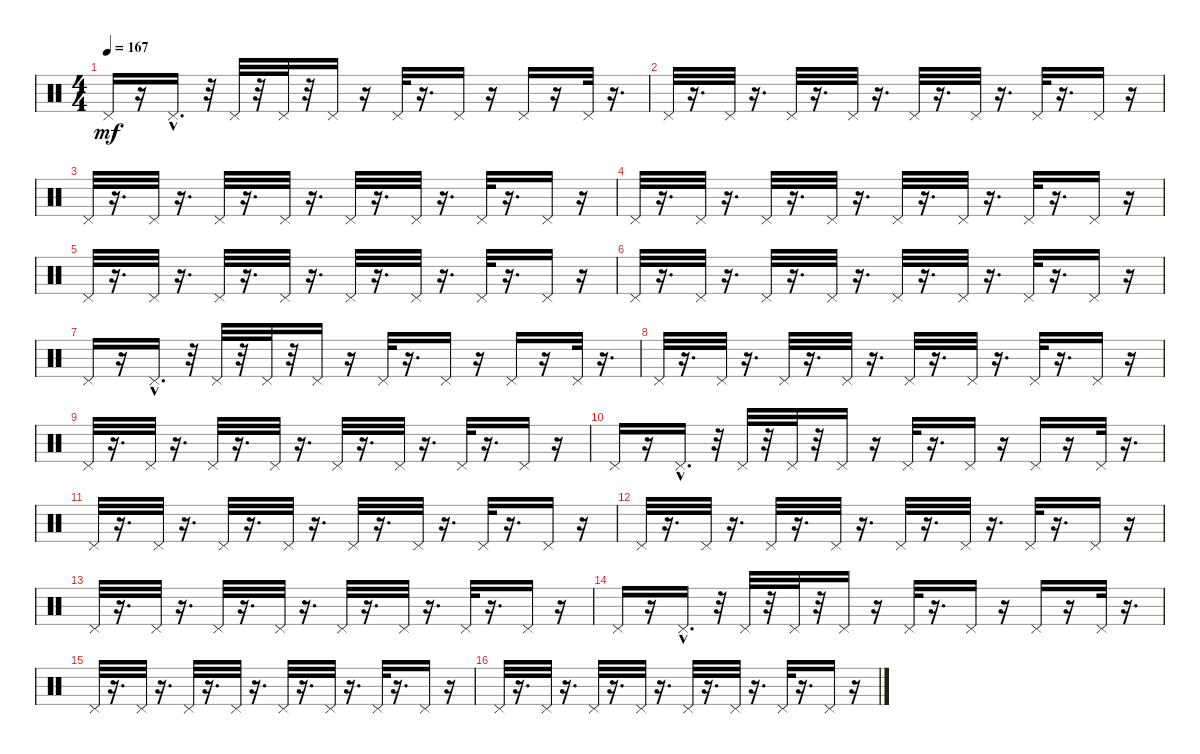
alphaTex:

\track "" {instrument percussion}
\staff {score}
\articulation defaults
\ts (4 4)
\tempo 167
\clef neutral
\ks c "Pedal Hi-Hat (hit)".16{dy mf}
r.16 "Pedal Hi-Hat (hit)"{hac}.16{d} r.32 "Pedal Hi-Hat (hit)".32 r.32 "Pedal Hi-Hat (hit)".32 r.32 "Pedal Hi-Hat (hit)".16 r.16 "Pedal Hi-Hat (hit)".32 r.16{d} "Pedal Hi-Hat (hit)".16 r.16 "Pedal Hi-Hat (hit)".16 r.16 "Pedal Hi-Hat (hit)".32 r.16{d} |
"Pedal Hi-Hat (hit)".32 r.16{d} "Pedal Hi-Hat (hit)".32 r.16{d} "Pedal Hi-Hat (hit)".32 r.16{d} "Pedal Hi-Hat (hit)".32 r.16{d} "Pedal Hi-Hat (hit)".32 r.16{d} "Pedal Hi-Hat (hit)".32 r.16{d} "Pedal Hi-Hat (hit)".32 r.16{d} "Pedal Hi-Hat (hit)".16 r.16 |
"Pedal Hi-Hat (hit)".32 r.16{d} "Pedal Hi-Hat (hit)".32 r.16{d} "Pedal Hi-Hat (hit)".32 r.16{d} "Pedal Hi-Hat (hit)".32 r.16{d} "Pedal Hi-Hat (hit)".32 r.16{d} "Pedal Hi-Hat (hit)".32 r.16{d} "Pedal Hi-Hat (hit)".32 r.16{d} "Pedal Hi-Hat (hit)".16 r.16 |
"Pedal Hi-Hat (hit)".32 r.16{d} "Pedal Hi-Hat (hit)".32 r.16{d} "Pedal Hi-Hat (hit)".32 r.16{d} "Pedal Hi-Hat (hit)".32 r.16{d} "Pedal Hi-Hat (hit)".32 r.16{d} "Pedal Hi-Hat (hit)".32 r.16{d} "Pedal Hi-Hat (hit)".32 r.16{d} "Pedal Hi-Hat (hit)".16 r.16 |
"Pedal Hi-Hat (hit)".32 r.16{d} "Pedal Hi-Hat (hit)".32 r.16{d} "Pedal Hi-Hat (hit)".32 r.16{d} "Pedal Hi-Hat (hit)".32 r.16{d} "Pedal Hi-Hat (hit)".32 r.16{d} "Pedal Hi-Hat (hit)".32 r.16{d} "Pedal Hi-Hat (hit)".32 r.16{d} "Pedal Hi-Hat (hit)".16 r.16 |
"Pedal Hi-Hat (hit)".32 r.16{d} "Pedal Hi-Hat (hit)".32 r.16{d} "Pedal Hi-Hat (hit)".32 r.16{d} "Pedal Hi-Hat (hit)".32 r.16{d} "Pedal Hi-Hat (hit)".32 r.16{d} "Pedal Hi-Hat (hit)".32 r.16{d} "Pedal Hi-Hat (hit)".32 r.16{d} "Pedal Hi-Hat (hit)".16 r.16 |
"Pedal Hi-Hat (hit)".16 r.16 "Pedal Hi-Hat (hit)"{hac}.16{d} r.32 "Pedal Hi-Hat (hit)".32 r.32 "Pedal Hi-Hat (hit)".32 r.32 "Pedal Hi-Hat (hit)".16 r.16 "Pedal Hi-Hat (hit)".32 r.16{d} "Pedal Hi-Hat (hit)".16 r.16 "Pedal Hi-Hat (hit)".16 r.16 "Pedal Hi-Hat (hit)".32 r.16{d} |
"Pedal Hi-Hat (hit)".32 r.16{d} "Pedal Hi-Hat (hit)".32 r.16{d} "Pedal Hi-Hat (hit)".32 r.16{d} "Pedal Hi-Hat (hit)".32 r.16{d} "Pedal Hi-Hat (hit)".32 r.16{d} "Pedal Hi-Hat (hit)".32 r.16{d} "Pedal Hi-Hat (hit)".32 r.16{d} "Pedal Hi-Hat (hit)".16 r.16 |
"Pedal Hi-Hat (hit)".32 r.16{d} "Pedal Hi-Hat (hit)".32 r.16{d} "Pedal Hi-Hat (hit)".32 r.16{d} "Pedal Hi-Hat (hit)".32 r.16{d} "Pedal Hi-Hat (hit)".32 r.16{d} "Pedal Hi-Hat (hit)".32 r.16{d} "Pedal Hi-Hat (hit)".32 r.16{d} "Pedal Hi-Hat (hit)".16 r.16 |
"Pedal Hi-Hat (hit)".16 r.16 "Pedal Hi-Hat (hit)"{hac}.16{d} r.32 "Pedal Hi-Hat (hit)".32 r.32 "Pedal Hi-Hat (hit)".32 r.32 "Pedal Hi-Hat (hit)".16 r.16 "Pedal Hi-Hat (hit)".32 r.16{d} "Pedal Hi-Hat (hit)".16 r.16 "Pedal Hi-Hat (hit)".16 r.16 "Pedal Hi-Hat (hit)".32 r.16{d} |
"Pedal Hi-Hat (hit)".32 r.16{d} "Pedal Hi-Hat (hit)".32 r.16{d} "Pedal Hi-Hat (hit)".32 r.16{d} "Pedal Hi-Hat (hit)".32 r.16{d} "Pedal Hi-Hat (hit)".32 r.16{d} "Pedal Hi-Hat (hit)".32 r.16{d} "Pedal Hi-Hat (hit)".32 r.16{d} "Pedal Hi-Hat (hit)".16 r.16 |
"Pedal Hi-Hat (hit)".32 r.16{d} "Pedal Hi-Hat (hit)".32 r.16{d} "Pedal Hi-Hat (hit)".32 r.16{d} "Pedal Hi-Hat (hit)".32 r.16{d} "Pedal Hi-Hat (hit)".32 r.16{d} "Pedal Hi-Hat (hit)".32 r.16{d} "Pedal Hi-Hat (hit)".32 r.16{d} "Pedal Hi-Hat (hit)".16 r.16 |
"Pedal Hi-Hat (hit)".32 r.16{d} "Pedal Hi-Hat (hit)".32 r.16{d} "Pedal Hi-Hat (hit)".32 r.16{d} "Pedal Hi-Hat (hit)".32 r.16{d} "Pedal Hi-Hat (hit)".32 r.16{d} "Pedal Hi-Hat (hit)".32 r.16{d} "Pedal Hi-Hat (hit)".32 r.16{d} "Pedal Hi-Hat (hit)".16 r.16 |
"Pedal Hi-Hat (hit)".16 r.16 "Pedal Hi-Hat (hit)"{hac}.16{d} r.32 "Pedal Hi-Hat (hit)".32 r.32 "Pedal Hi-Hat (hit)".32 r.32 "Pedal Hi-Hat (hit)".16 r.16 "Pedal Hi-Hat (hit)".32 r.16{d} "Pedal Hi-Hat (hit)".16 r.16 "Pedal Hi-Hat (hit)".16 r.16 "Pedal Hi-Hat (hit)".32 r.16{d} |
"Pedal Hi-Hat (hit)".32 r.16{d} "Pedal Hi-Hat (hit)".32 r.16{d} "Pedal Hi-Hat (hit)".32 r.16{d} "Pedal Hi-Hat (hit)".32 r.16{d} "Pedal Hi-Hat (hit)".32 r.16{d} "Pedal Hi-Hat (hit)".32 r.16{d} "Pedal Hi-Hat (hit)".32 r.16{d} "Pedal Hi-Hat (hit)".16 r.16 |
"Pedal Hi-Hat (hit)".32 r.16{d} "Pedal Hi-Hat (hit)".32 r.16{d} "Pedal Hi-Hat (hit)".32 r.16{d} "Pedal Hi-Hat (hit)".32 r.16{d} "Pedal Hi-Hat (hit)".32 r.16{d} "Pedal Hi-Hat (hit)".32 r.16{d} "Pedal Hi-Hat (hit)".32 r.16{d} "Pedal Hi-Hat (hit)".16 r.16
